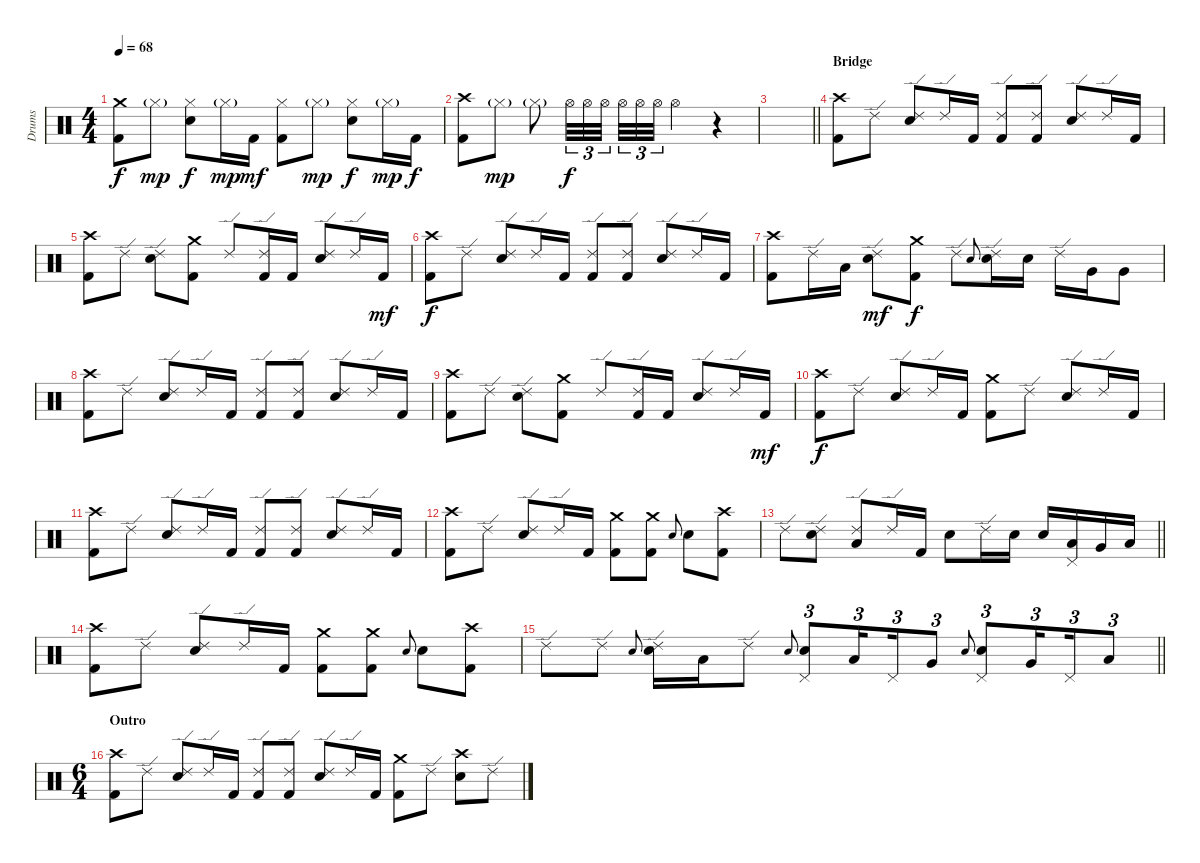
\track ("Drums" "Drums") {instrument percussion}
\staff {score}
\articulation defaults
\ts (4 4)
\tempo 68
\clef neutral
\ks aminor
("Crash medium (hit)" "Kick (hit) 2").8{dy f} "Hi-Hat (closed)"{g}.8{dy mp} ("Hi-Hat (closed)" "Snare (hit) 2").8{dy f} "Hi-Hat (closed)"{g}.16{dy mp} "Kick (hit) 2".16{dy mf} ("Hi-Hat (closed)" "Kick (hit) 2").8 "Hi-Hat (closed)"{g}.8{dy mp} ("Hi-Hat (closed)" "Snare (hit) 2").8{dy f} "Hi-Hat (closed)"{g}.16{dy mp} "Kick (hit) 2".16{dy f} |
("Crash high (hit)" "Kick (hit) 2").8 "Hi-Hat (closed)"{g}.8{dy mp} "Hi-Hat (closed)"{g}.8{volume 4} "Hi-Hat (open)".32{tu (3 2) dy f volume 9} "Hi-Hat (open)".32{tu (3 2)} "Hi-Hat (open)".32{tu (3 2) beam splitsecondary} "Hi-Hat (open)".32{tu (3 2)} "Hi-Hat (open)".32{tu (3 2)} "Hi-Hat (open)".32{tu (3 2)} "Hi-Hat (open)".4 r.4{volume 13} |
\barLineRight lightlight
|
\section ("" "Bridge")
("Crash high (hit)" "Kick (hit) 2").8 "Ride (edge) 2".8 ("Ride (edge) 2" "Snare (hit) 2").8 "Ride (edge) 2".16 "Kick (hit) 2".16 ("Ride (edge) 2" "Kick (hit) 2").8 ("Ride (edge) 2" "Kick (hit) 2").8 ("Ride (edge) 2" "Snare (hit) 2").8 "Ride (edge) 2".16 "Kick (hit) 2".16 |
("Crash high (hit)" "Kick (hit) 2").8 "Ride (edge) 2".8 ("Ride (edge) 2" "Snare (hit) 2").8 ("Crash medium (hit)" "Kick (hit) 2").8 "Ride (edge) 2".8 ("Ride (edge) 2" "Kick (hit) 2").16 "Kick (hit) 2".16 ("Ride (edge) 2" "Snare (hit) 2").8 "Ride (edge) 2".16 "Kick (hit) 2".16{dy mf} |
("Crash high (hit)" "Kick (hit) 2").8{dy f} "Ride (edge) 2".8 ("Ride (edge) 2" "Snare (hit) 2").8 "Ride (edge) 2".16 "Kick (hit) 2".16 ("Ride (edge) 2" "Kick (hit) 2").8 ("Ride (edge) 2" "Kick (hit) 2").8 ("Ride (edge) 2" "Snare (hit) 2").8 "Ride (edge) 2".16 "Kick (hit) 2".16 |
("Crash high (hit)" "Kick (hit) 2").8 "Ride (edge) 2".16 "Low Tom (hit)".16 ("Ride (edge) 2" "Snare (hit) 2").8{dy mf} ("Crash medium (hit)" "Kick (hit) 2").8{dy f} "Ride (edge) 2".8 "Snare (hit) 2".8{gr onbeat} ("Ride (edge) 2" "Snare (hit) 2").16 "Snare (hit) 2".16 "Ride (edge) 2".16 "Very Low Tom (hit)".16 "Very Low Tom (hit)".8 |
("Crash high (hit)" "Kick (hit) 2").8 "Ride (edge) 2".8 ("Ride (edge) 2" "Snare (hit) 2").8 "Ride (edge) 2".16 "Kick (hit) 2".16 ("Ride (edge) 2" "Kick (hit) 2").8 ("Ride (edge) 2" "Kick (hit) 2").8 ("Ride (edge) 2" "Snare (hit) 2").8 "Ride (edge) 2".16 "Kick (hit) 2".16 |
("Crash high (hit)" "Kick (hit) 2").8 "Ride (edge) 2".8 ("Ride (edge) 2" "Snare (hit) 2").8 ("Crash medium (hit)" "Kick (hit) 2").8 "Ride (edge) 2".8 ("Ride (edge) 2" "Kick (hit) 2").16 "Kick (hit) 2".16 ("Ride (edge) 2" "Snare (hit) 2").8 "Ride (edge) 2".16 "Kick (hit) 2".16{dy mf} |
("Crash high (hit)" "Kick (hit) 2").8{dy f} "Ride (edge) 2".8 ("Ride (edge) 2" "Snare (hit) 2").8 "Ride (edge) 2".16 "Kick (hit) 2".16 ("Crash medium (hit)" "Kick (hit) 2").8 "Ride (edge) 2".8 ("Ride (edge) 2" "Snare (hit) 2").8 "Ride (edge) 2".16 "Kick (hit) 2".16 |
("Crash high (hit)" "Kick (hit) 2").8 "Ride (edge) 2".8 ("Ride (edge) 2" "Snare (hit) 2").8 "Ride (edge) 2".16 "Kick (hit) 2".16 ("Ride (edge) 2" "Kick (hit) 2").8 ("Ride (edge) 2" "Kick (hit) 2").8 ("Ride (edge) 2" "Snare (hit) 2").8 "Ride (edge) 2".16 "Kick (hit) 2".16 |
("Crash high (hit)" "Kick (hit) 2").8 "Ride (edge) 2".8 ("Ride (edge) 2" "Snare (hit) 2").8 "Ride (edge) 2".16 "Kick (hit) 2".16 ("Crash medium (hit)" "Kick (hit) 2").8 ("Crash medium (hit)" "Kick (hit) 2").8 "Snare (hit) 2".8{gr onbeat} "Snare (hit) 2".8 ("Crash high (hit)" "Kick (hit) 2").8 |
\barLineRight lightlight "Ride (edge) 2".8
("Ride (edge) 2" "Snare (hit) 2").8 ("Ride (edge) 2" "Low Tom (hit)").8 "Ride (edge) 2".16 "Kick (hit) 2".16 "Snare (hit) 2".8 "Ride (edge) 2".16 "Snare (hit) 2".16 "Snare (hit) 2".16 ("Pedal Hi-Hat (hit)" "Low Tom (hit)").16 "Very Low Tom (hit)".16 "Low Floor Tom (hit)".16 |
\section ("" "")
("Crash high (hit)" "Kick (hit) 2").8 "Ride (edge) 2".8 ("Ride (edge) 2" "Snare (hit) 2").8 "Ride (edge) 2".16 "Kick (hit) 2".16 ("Crash medium (hit)" "Kick (hit) 2").8 ("Crash medium (hit)" "Kick (hit) 2").8 "Snare (hit) 2".8{gr onbeat} "Snare (hit) 2".8 ("Crash high (hit)" "Kick (hit) 2").8 |
\barLineRight lightlight "Ride (edge) 2".8 "Ride (edge) 2".8 "Snare (hit) 2".8{gr onbeat}
("Ride (edge) 2" "Snare (hit) 2").16 "Low Tom (hit)".16 "Ride (edge) 2".8 "Snare (hit) 2".8{gr onbeat} ("Pedal Hi-Hat (hit)" "Snare (hit) 2").8{tu (3 2)} "Low Tom (hit)".16{tu (3 2) beam splitsecondary} "Pedal Hi-Hat (hit)".16{tu (3 2)} "Very Low Tom (hit)".8{tu (3 2)} "Snare (hit) 2".8{gr onbeat} ("Pedal Hi-Hat (hit)" "Snare (hit) 2").8{tu (3 2)} "Very Low Tom (hit)".16{tu (3 2) beam splitsecondary} "Pedal Hi-Hat (hit)".16{tu (3 2)} "Low Floor Tom (hit)".8{tu (3 2)} |
\ts (6 4)
\section ("" "Outro")
("Crash high (hit)" "Kick (hit) 2").8 "Ride (edge) 2".8 ("Ride (edge) 2" "Snare (hit) 2").8 "Ride (edge) 2".16 "Kick (hit) 2".16 ("Ride (edge) 2" "Kick (hit) 2").8 ("Ride (edge) 2" "Kick (hit) 2").8 ("Ride (edge) 2" "Snare (hit) 2").8 "Ride (edge) 2".16 "Kick (hit) 2".16 ("Crash medium (hit)" "Kick (hit) 2").8 "Ride (edge) 2".8 ("Crash high (hit)" "Snare (hit) 2").8 "Ride (edge) 2".8
